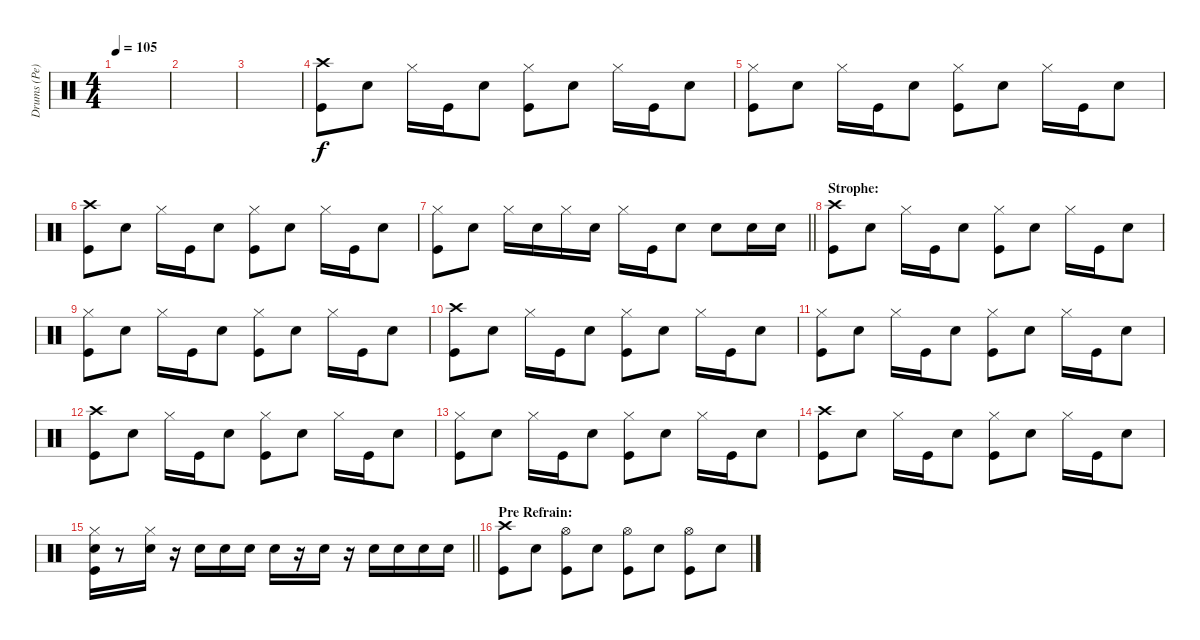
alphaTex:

\track ("Drums (Pe)" "Drums (Pe)") {instrument percussion}
\staff {score}
\articulation defaults
\ts (4 4)
\tempo 105
\clef neutral
\ks c
|
|
|
("Crash high (hit)" "Kick (hit)").8 "Snare (hit) 2".8 "Hi-Hat (closed)".16 "Kick (hit)".16 "Snare (hit) 2".8 ("Hi-Hat (closed)" "Kick (hit)").8 "Snare (hit) 2".8 "Hi-Hat (closed)".16 "Kick (hit)".16 "Snare (hit) 2".8 |
("Hi-Hat (closed)" "Kick (hit)").8 "Snare (hit) 2".8 "Hi-Hat (closed)".16 "Kick (hit)".16 "Snare (hit) 2".8 ("Hi-Hat (closed)" "Kick (hit)").8 "Snare (hit) 2".8 "Hi-Hat (closed)".16 "Kick (hit)".16 "Snare (hit) 2".8 |
("Crash high (hit)" "Kick (hit)").8 "Snare (hit) 2".8 "Hi-Hat (closed)".16 "Kick (hit)".16 "Snare (hit) 2".8 ("Hi-Hat (closed)" "Kick (hit)").8 "Snare (hit) 2".8 "Hi-Hat (closed)".16 "Kick (hit)".16 "Snare (hit) 2".8 |
\barLineRight lightlight
("Hi-Hat (closed)" "Kick (hit)").8 "Snare (hit) 2".8 "Hi-Hat (closed)".16 "Snare (hit) 2".16 "Hi-Hat (closed)".16 "Snare (hit) 2".16 "Hi-Hat (closed)".16 "Kick (hit)".16 "Snare (hit) 2".8 "Snare (hit) 2".8 "Snare (hit) 2".16 "Snare (hit) 2".16 |
\section ("" "Strophe:")
("Crash high (hit)" "Kick (hit)").8 "Snare (hit) 2".8 "Hi-Hat (closed)".16 "Kick (hit)".16 "Snare (hit) 2".8 ("Hi-Hat (closed)" "Kick (hit)").8 "Snare (hit) 2".8 "Hi-Hat (closed)".16 "Kick (hit)".16 "Snare (hit) 2".8 |
("Hi-Hat (closed)" "Kick (hit)").8 "Snare (hit) 2".8 "Hi-Hat (closed)".16 "Kick (hit)".16 "Snare (hit) 2".8 ("Hi-Hat (closed)" "Kick (hit)").8 "Snare (hit) 2".8 "Hi-Hat (closed)".16 "Kick (hit)".16 "Snare (hit) 2".8 |
("Crash high (hit)" "Kick (hit)").8 "Snare (hit) 2".8 "Hi-Hat (closed)".16 "Kick (hit)".16 "Snare (hit) 2".8 ("Hi-Hat (closed)" "Kick (hit)").8 "Snare (hit) 2".8 "Hi-Hat (closed)".16 "Kick (hit)".16 "Snare (hit) 2".8 |
("Hi-Hat (closed)" "Kick (hit)").8 "Snare (hit) 2".8 "Hi-Hat (closed)".16 "Kick (hit)".16 "Snare (hit) 2".8 ("Hi-Hat (closed)" "Kick (hit)").8 "Snare (hit) 2".8 "Hi-Hat (closed)".16 "Kick (hit)".16 "Snare (hit) 2".8 |
("Crash high (hit)" "Kick (hit)").8 "Snare (hit) 2".8 "Hi-Hat (closed)".16 "Kick (hit)".16 "Snare (hit) 2".8 ("Hi-Hat (closed)" "Kick (hit)").8 "Snare (hit) 2".8 "Hi-Hat (closed)".16 "Kick (hit)".16 "Snare (hit) 2".8 |
("Hi-Hat (closed)" "Kick (hit)").8 "Snare (hit) 2".8 "Hi-Hat (closed)".16 "Kick (hit)".16 "Snare (hit) 2".8 ("Hi-Hat (closed)" "Kick (hit)").8 "Snare (hit) 2".8 "Hi-Hat (closed)".16 "Kick (hit)".16 "Snare (hit) 2".8 |
("Crash high (hit)" "Kick (hit)").8 "Snare (hit) 2".8 "Hi-Hat (closed)".16 "Kick (hit)".16 "Snare (hit) 2".8 ("Hi-Hat (closed)" "Kick (hit)").8 "Snare (hit) 2".8 "Hi-Hat (closed)".16 "Kick (hit)".16 "Snare (hit) 2".8 |
\barLineRight lightlight
("Hi-Hat (closed)" "Kick (hit)" "Snare (hit) 2").16 r.8 ("Snare (hit) 2" "Hi-Hat (closed)").16 r.16 "Snare (hit) 2".16 "Snare (hit) 2".16 "Snare (hit) 2".16 "Snare (hit) 2".16 r.16 "Snare (hit) 2".16 r.16 "Snare (hit) 2".16 "Snare (hit) 2".16 "Snare (hit) 2".16 "Snare (hit) 2".16 |
\section ("" "Pre Refrain:")
("Crash high (hit)" "Kick (hit)").8 "Snare (hit) 2".8 ("Hi-Hat (open)" "Kick (hit)").8 "Snare (hit) 2".8 ("Hi-Hat (open)" "Kick (hit)").8 "Snare (hit) 2".8 ("Hi-Hat (open)" "Kick (hit)").8 "Snare (hit) 2".8
